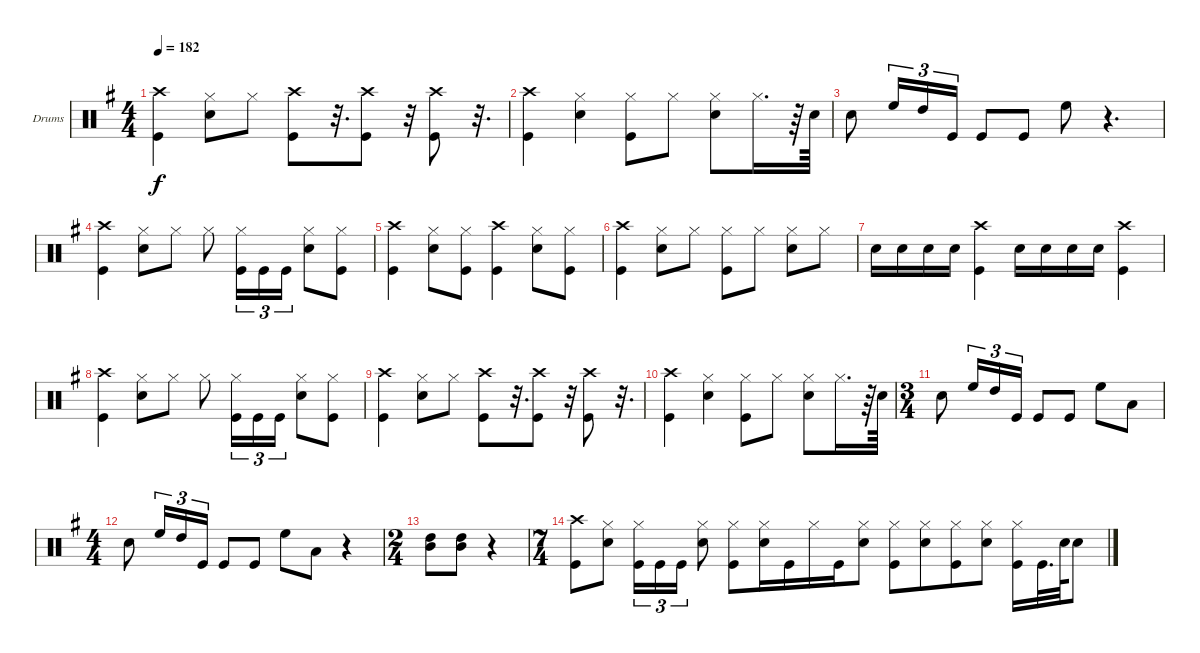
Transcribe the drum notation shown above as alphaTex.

\bracketExtendMode groupsimilarinstruments
\firstSystemTrackNameOrientation horizontal
\otherSystemsTrackNameOrientation horizontal
\track ("Drumkit" "Drums") {instrument percussion}
\staff {score}
\articulation defaults
\ts (4 4)
\tempo 182
\clef neutral
\scale
1.04288
\ks g
("Kick (hit)" "Crash high (hit)").4{dy f} ("Hi-Hat (closed)" "Snare (hit) 2").8 "Hi-Hat (closed)".8 ("Kick (hit)" "Crash high (hit)").8 r.32{d} ("Kick (hit)" "Crash high (hit)").8 r.32 ("Kick (hit)" "Crash high (hit)").8 r.32{d} |
\scale
0.957125 ("Kick (hit)" "Crash high (hit)").4 ("Hi-Hat (closed)" "Snare (hit) 2").4 ("Hi-Hat (closed)" "Kick (hit)").8 "Hi-Hat (closed)".8 ("Snare (hit) 2" "Hi-Hat (closed)").8 "Hi-Hat (closed)".16{d} r.64 "Snare (hit) 2".64 |
\scale
1.04288 "Snare (hit) 2".8 "High Floor Tom (hit)".16{tu (3 2)} "High Tom (hit)".16{tu (3 2)} "Kick (hit)".16{tu (3 2)} "Kick (hit)".8 "Kick (hit)".8 "High Floor Tom (hit)".8 r.4{d} |
\scale
0.957125 ("Kick (hit)" "Crash high (hit)").4 ("Snare (hit) 2" "Hi-Hat (closed)").8 "Hi-Hat (closed)".8 "Hi-Hat (closed)".8 ("Kick (hit)" "Hi-Hat (closed)").16{tu (3 2)} "Kick (hit)".16{tu (3 2)} "Kick (hit)".16{tu (3 2)} ("Snare (hit) 2" "Hi-Hat (closed)").8 ("Kick (hit)" "Hi-Hat (closed)").8 |
\scale
1.04288 ("Kick (hit)" "Crash high (hit)").4 ("Hi-Hat (closed)" "Snare (hit) 2").8 ("Kick (hit)" "Hi-Hat (closed)").8 ("Crash high (hit)" "Kick (hit)").4 ("Hi-Hat (closed)" "Snare (hit) 2").8 ("Kick (hit)" "Hi-Hat (closed)").8 |
\scale
0.957125 ("Kick (hit)" "Crash high (hit)").4 ("Hi-Hat (closed)" "Snare (hit) 2").8 "Hi-Hat (closed)".8 ("Hi-Hat (closed)" "Kick (hit)").8 "Hi-Hat (closed)".8 ("Snare (hit) 2" "Hi-Hat (closed)").8 "Hi-Hat (closed)".8 |
\scale
1.04288 "Snare (hit) 2".16 "Snare (hit) 2".16 "Snare (hit) 2".16 "Snare (hit) 2".16 ("Kick (hit)" "Crash high (hit)").4 "Snare (hit) 2".16 "Snare (hit) 2".16 "Snare (hit) 2".16 "Snare (hit) 2".16 ("Kick (hit)" "Crash high (hit)").4 |
\scale
0.957125 ("Kick (hit)" "Crash high (hit)").4 ("Snare (hit) 2" "Hi-Hat (closed)").8 "Hi-Hat (closed)".8 "Hi-Hat (closed)".8 ("Kick (hit)" "Hi-Hat (closed)").16{tu (3 2)} "Kick (hit)".16{tu (3 2)} "Kick (hit)".16{tu (3 2)} ("Snare (hit) 2" "Hi-Hat (closed)").8 ("Kick (hit)" "Hi-Hat (closed)").8 |
\scale
1.04288 ("Kick (hit)" "Crash high (hit)").4 ("Hi-Hat (closed)" "Snare (hit) 2").8 "Hi-Hat (closed)".8 ("Kick (hit)" "Crash high (hit)").8 r.32{d} ("Kick (hit)" "Crash high (hit)").8 r.32 ("Kick (hit)" "Crash high (hit)").8 r.32{d} |
\scale
0.957125 ("Kick (hit)" "Crash high (hit)").4 ("Hi-Hat (closed)" "Snare (hit) 2").4 ("Hi-Hat (closed)" "Kick (hit)").8 "Hi-Hat (closed)".8 ("Snare (hit) 2" "Hi-Hat (closed)").8 "Hi-Hat (closed)".16{d} r.64 "Snare (hit) 2".64 |
\ts (3 4)
\scale
1.07314 "Snare (hit) 2".8 "High Floor Tom (hit)".16{tu (3 2)} "High Tom (hit)".16{tu (3 2)} "Kick (hit)".16{tu (3 2)} "Kick (hit)".8 "Kick (hit)".8 "High Floor Tom (hit)".8 "Low Tom (hit)".8 |
\ts (4 4)
\beaming (8 4 4)
\scale
0.92686 "Snare (hit) 2".8 "High Floor Tom (hit)".16{tu (3 2)} "High Tom (hit)".16{tu (3 2)} "Kick (hit)".16{tu (3 2)} "Kick (hit)".8 "Kick (hit)".8 "High Floor Tom (hit)".8 "Low Tom (hit)".8 r.4 |
\ts (2 4)
\scale
1.07314 ("High Tom (hit)" "Mid Tom (hit)").8 ("High Tom (hit)" "Mid Tom (hit)").8 r.4 |
\ts (7 4)
\scale
0.92686 ("Crash high (hit)" "Kick (hit)").8 ("Snare (hit) 2" "Hi-Hat (closed)").8 ("Hi-Hat (closed)" "Kick (hit)").16{tu (3 2)} "Kick (hit)".16{tu (3 2)} "Kick (hit)".16{tu (3 2)} ("Snare (hit) 2" "Hi-Hat (closed)").8 ("Hi-Hat (closed)" "Kick (hit)").8 ("Snare (hit) 2" "Hi-Hat (closed)").16 "Kick (hit)".16 "Hi-Hat (closed)".16 "Kick (hit)".16 ("Snare (hit) 2" "Hi-Hat (closed)").8 ("Hi-Hat (closed)" "Kick (hit)").8 ("Snare (hit) 2" "Hi-Hat (closed)").8 ("Hi-Hat (closed)" "Kick (hit)").8 ("Snare (hit) 2" "Hi-Hat (closed)").8 ("Hi-Hat (closed)" "Kick (hit)").16 "Kick (hit)".32{d} "Snare (hit) 2".64 "Snare (hit) 2".8
